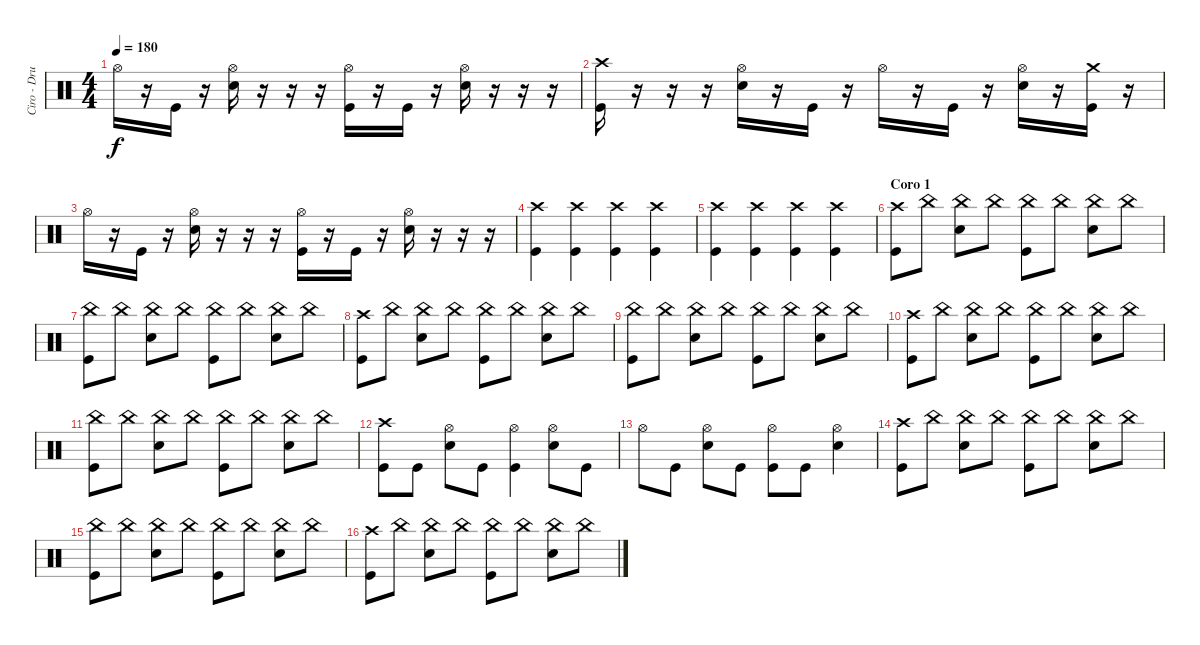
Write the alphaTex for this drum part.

\track ("Ciro - Drums" "Ciro - Dru") {instrument percussion}
\staff {score}
\articulation defaults
\ts (4 4)
\tempo 180
\clef neutral
\ks c "Hi-Hat (open)".16{dy f}
r.16 "Kick (hit)".16 r.16 ("Hi-Hat (open)" "Electric Snare (hit)").16 r.16 r.16 r.16 ("Hi-Hat (open)" "Kick (hit)").16 r.16 "Kick (hit)".16 r.16 ("Hi-Hat (open)" "Electric Snare (hit)").16 r.16 r.16 r.16 |
("Crash high (hit)" "Kick (hit)").16 r.16 r.16 r.16 ("Hi-Hat (open)" "Electric Snare (hit)").16 r.16 "Kick (hit)".16 r.16 "Hi-Hat (open)".16 r.16 "Kick (hit)".16 r.16 ("Hi-Hat (open)" "Electric Snare (hit)").16 r.16 ("Crash medium (hit)" "Kick (hit)").16 r.16 |
"Hi-Hat (open)".16 r.16 "Kick (hit)".16 r.16 ("Hi-Hat (open)" "Electric Snare (hit)").16 r.16 r.16 r.16 ("Hi-Hat (open)" "Kick (hit)").16 r.16 "Kick (hit)".16 r.16 ("Hi-Hat (open)" "Electric Snare (hit)").16 r.16 r.16 r.16 |
("Crash high (hit)" "Kick (hit)").4 ("Crash high (hit)" "Kick (hit)").4 ("Crash high (hit)" "Kick (hit)").4 ("Crash high (hit)" "Kick (hit)").4 |
("Crash high (hit)" "Kick (hit)").4 ("Crash high (hit)" "Kick (hit)").4 ("Crash high (hit)" "Kick (hit)").4 ("Crash high (hit)" "Kick (hit)").4 |
\section ("" "Coro 1")
("Crash high (hit)" "Kick (hit)").8 "China (hit)".8 ("China (hit)" "Electric Snare (hit)").8 "China (hit)".8 ("China (hit)" "Kick (hit)").8 "China (hit)".8 ("China (hit)" "Electric Snare (hit)").8 "China (hit)".8 |
("China (hit)" "Kick (hit)").8 "China (hit)".8 ("China (hit)" "Electric Snare (hit)").8 "China (hit)".8 ("China (hit)" "Kick (hit)").8 "China (hit)".8 ("China (hit)" "Electric Snare (hit)").8 "China (hit)".8 |
("Crash high (hit)" "Kick (hit)").8 "China (hit)".8 ("China (hit)" "Electric Snare (hit)").8 "China (hit)".8 ("China (hit)" "Kick (hit)").8 "China (hit)".8 ("China (hit)" "Electric Snare (hit)").8 "China (hit)".8 |
("China (hit)" "Kick (hit)").8 "China (hit)".8 ("China (hit)" "Electric Snare (hit)").8 "China (hit)".8 ("China (hit)" "Kick (hit)").8 "China (hit)".8 ("China (hit)" "Electric Snare (hit)").8 "China (hit)".8 |
("Crash high (hit)" "Kick (hit)").8 "China (hit)".8 ("China (hit)" "Electric Snare (hit)").8 "China (hit)".8 ("China (hit)" "Kick (hit)").8 "China (hit)".8 ("China (hit)" "Electric Snare (hit)").8 "China (hit)".8 |
("China (hit)" "Kick (hit)").8 "China (hit)".8 ("China (hit)" "Electric Snare (hit)").8 "China (hit)".8 ("China (hit)" "Kick (hit)").8 "China (hit)".8 ("China (hit)" "Electric Snare (hit)").8 "China (hit)".8 |
("Crash high (hit)" "Kick (hit)").8 "Kick (hit)".8 ("Hi-Hat (open)" "Electric Snare (hit)").8 "Kick (hit)".8 ("Hi-Hat (open)" "Kick (hit)").4 ("Hi-Hat (open)" "Electric Snare (hit)").8 "Kick (hit)".8 |
"Hi-Hat (open)".8 "Kick (hit)".8 ("Hi-Hat (open)" "Electric Snare (hit)").8 "Kick (hit)".8 ("Hi-Hat (open)" "Kick (hit)").8 "Kick (hit)".8 ("Hi-Hat (open)" "Electric Snare (hit)").4 |
("Crash high (hit)" "Kick (hit)").8 "China (hit)".8 ("China (hit)" "Electric Snare (hit)").8 "China (hit)".8 ("China (hit)" "Kick (hit)").8 "China (hit)".8 ("China (hit)" "Electric Snare (hit)").8 "China (hit)".8 |
("China (hit)" "Kick (hit)").8 "China (hit)".8 ("China (hit)" "Electric Snare (hit)").8 "China (hit)".8 ("China (hit)" "Kick (hit)").8 "China (hit)".8 ("China (hit)" "Electric Snare (hit)").8 "China (hit)".8 |
("Crash high (hit)" "Kick (hit)").8 "China (hit)".8 ("China (hit)" "Electric Snare (hit)").8 "China (hit)".8 ("China (hit)" "Kick (hit)").8 "China (hit)".8 ("China (hit)" "Electric Snare (hit)").8 "China (hit)".8
